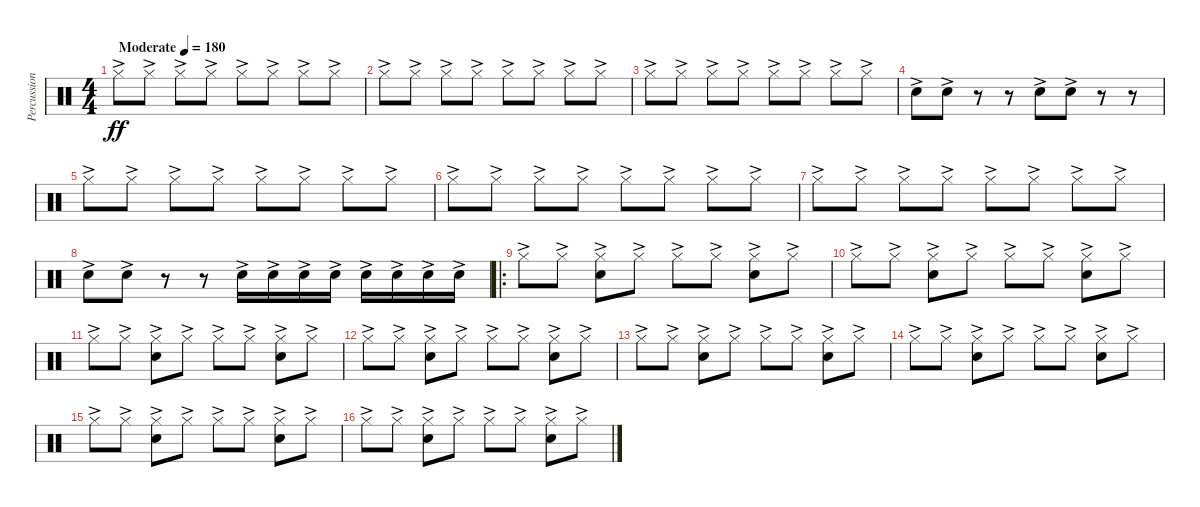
\track ("Percussion" "Percussion") {instrument percussion}
\staff {score}
\articulation defaults
\ts (4 4)
\tempo (180 "Moderate")
\clef neutral
\ks c "Hi-Hat (closed)"{ac}.8{dy ff} "Hi-Hat (closed)"{ac}.8 "Hi-Hat (closed)"{ac}.8 "Hi-Hat (closed)"{ac}.8 "Hi-Hat (closed)"{ac}.8 "Hi-Hat (closed)"{ac}.8 "Hi-Hat (closed)"{ac}.8 "Hi-Hat (closed)"{ac}.8
|
"Hi-Hat (closed)"{ac}.8 "Hi-Hat (closed)"{ac}.8 "Hi-Hat (closed)"{ac}.8 "Hi-Hat (closed)"{ac}.8 "Hi-Hat (closed)"{ac}.8 "Hi-Hat (closed)"{ac}.8 "Hi-Hat (closed)"{ac}.8 "Hi-Hat (closed)"{ac}.8 |
"Hi-Hat (closed)"{ac}.8 "Hi-Hat (closed)"{ac}.8 "Hi-Hat (closed)"{ac}.8 "Hi-Hat (closed)"{ac}.8 "Hi-Hat (closed)"{ac}.8 "Hi-Hat (closed)"{ac}.8 "Hi-Hat (closed)"{ac}.8 "Hi-Hat (closed)"{ac}.8 |
"Snare (hit) 2"{ac}.8 "Snare (hit) 2"{ac}.8 r.8 r.8 "Snare (hit) 2"{ac}.8 "Snare (hit) 2"{ac}.8 r.8 r.8 |
"Hi-Hat (closed)"{ac}.8 "Hi-Hat (closed)"{ac}.8 "Hi-Hat (closed)"{ac}.8 "Hi-Hat (closed)"{ac}.8 "Hi-Hat (closed)"{ac}.8 "Hi-Hat (closed)"{ac}.8 "Hi-Hat (closed)"{ac}.8 "Hi-Hat (closed)"{ac}.8 |
"Hi-Hat (closed)"{ac}.8 "Hi-Hat (closed)"{ac}.8 "Hi-Hat (closed)"{ac}.8 "Hi-Hat (closed)"{ac}.8 "Hi-Hat (closed)"{ac}.8 "Hi-Hat (closed)"{ac}.8 "Hi-Hat (closed)"{ac}.8 "Hi-Hat (closed)"{ac}.8 |
"Hi-Hat (closed)"{ac}.8 "Hi-Hat (closed)"{ac}.8 "Hi-Hat (closed)"{ac}.8 "Hi-Hat (closed)"{ac}.8 "Hi-Hat (closed)"{ac}.8 "Hi-Hat (closed)"{ac}.8 "Hi-Hat (closed)"{ac}.8 "Hi-Hat (closed)"{ac}.8 |
"Snare (hit) 2"{ac}.8 "Snare (hit) 2"{ac}.8 r.8 r.8 "Snare (hit) 2"{ac}.16 "Snare (hit) 2"{ac}.16 "Snare (hit) 2"{ac}.16 "Snare (hit) 2"{ac}.16 "Snare (hit) 2"{ac}.16 "Snare (hit) 2"{ac}.16 "Snare (hit) 2"{ac}.16 "Snare (hit) 2"{ac}.16 |
\ro "Hi-Hat (closed)"{ac}.8 "Hi-Hat (closed)"{ac}.8
("Hi-Hat (closed)"{ac} "Snare (hit) 2"{ac}).8 "Hi-Hat (closed)"{ac}.8 "Hi-Hat (closed)"{ac}.8 "Hi-Hat (closed)"{ac}.8 ("Hi-Hat (closed)"{ac} "Snare (hit) 2"{ac}).8 "Hi-Hat (closed)"{ac}.8 |
"Hi-Hat (closed)"{ac}.8 "Hi-Hat (closed)"{ac}.8 ("Hi-Hat (closed)"{ac} "Snare (hit) 2"{ac}).8 "Hi-Hat (closed)"{ac}.8 "Hi-Hat (closed)"{ac}.8 "Hi-Hat (closed)"{ac}.8 ("Hi-Hat (closed)"{ac} "Snare (hit) 2"{ac}).8 "Hi-Hat (closed)"{ac}.8 |
"Hi-Hat (closed)"{ac}.8 "Hi-Hat (closed)"{ac}.8 ("Hi-Hat (closed)"{ac} "Snare (hit) 2"{ac}).8 "Hi-Hat (closed)"{ac}.8 "Hi-Hat (closed)"{ac}.8 "Hi-Hat (closed)"{ac}.8 ("Hi-Hat (closed)"{ac} "Snare (hit) 2"{ac}).8 "Hi-Hat (closed)"{ac}.8 |
"Hi-Hat (closed)"{ac}.8 "Hi-Hat (closed)"{ac}.8 ("Hi-Hat (closed)"{ac} "Snare (hit) 2"{ac}).8 "Hi-Hat (closed)"{ac}.8 "Hi-Hat (closed)"{ac}.8 "Hi-Hat (closed)"{ac}.8 ("Hi-Hat (closed)"{ac} "Snare (hit) 2"{ac}).8 "Hi-Hat (closed)"{ac}.8 |
"Hi-Hat (closed)"{ac}.8 "Hi-Hat (closed)"{ac}.8 ("Hi-Hat (closed)"{ac} "Snare (hit) 2"{ac}).8 "Hi-Hat (closed)"{ac}.8 "Hi-Hat (closed)"{ac}.8 "Hi-Hat (closed)"{ac}.8 ("Hi-Hat (closed)"{ac} "Snare (hit) 2"{ac}).8 "Hi-Hat (closed)"{ac}.8 |
"Hi-Hat (closed)"{ac}.8 "Hi-Hat (closed)"{ac}.8 ("Hi-Hat (closed)"{ac} "Snare (hit) 2"{ac}).8 "Hi-Hat (closed)"{ac}.8 "Hi-Hat (closed)"{ac}.8 "Hi-Hat (closed)"{ac}.8 ("Hi-Hat (closed)"{ac} "Snare (hit) 2"{ac}).8 "Hi-Hat (closed)"{ac}.8 |
"Hi-Hat (closed)"{ac}.8 "Hi-Hat (closed)"{ac}.8 ("Hi-Hat (closed)"{ac} "Snare (hit) 2"{ac}).8 "Hi-Hat (closed)"{ac}.8 "Hi-Hat (closed)"{ac}.8 "Hi-Hat (closed)"{ac}.8 ("Hi-Hat (closed)"{ac} "Snare (hit) 2"{ac}).8 "Hi-Hat (closed)"{ac}.8 |
"Hi-Hat (closed)"{ac}.8 "Hi-Hat (closed)"{ac}.8 ("Hi-Hat (closed)"{ac} "Snare (hit) 2"{ac}).8 "Hi-Hat (closed)"{ac}.8 "Hi-Hat (closed)"{ac}.8 "Hi-Hat (closed)"{ac}.8 ("Hi-Hat (closed)"{ac} "Snare (hit) 2"{ac}).8 "Hi-Hat (closed)"{ac}.8
